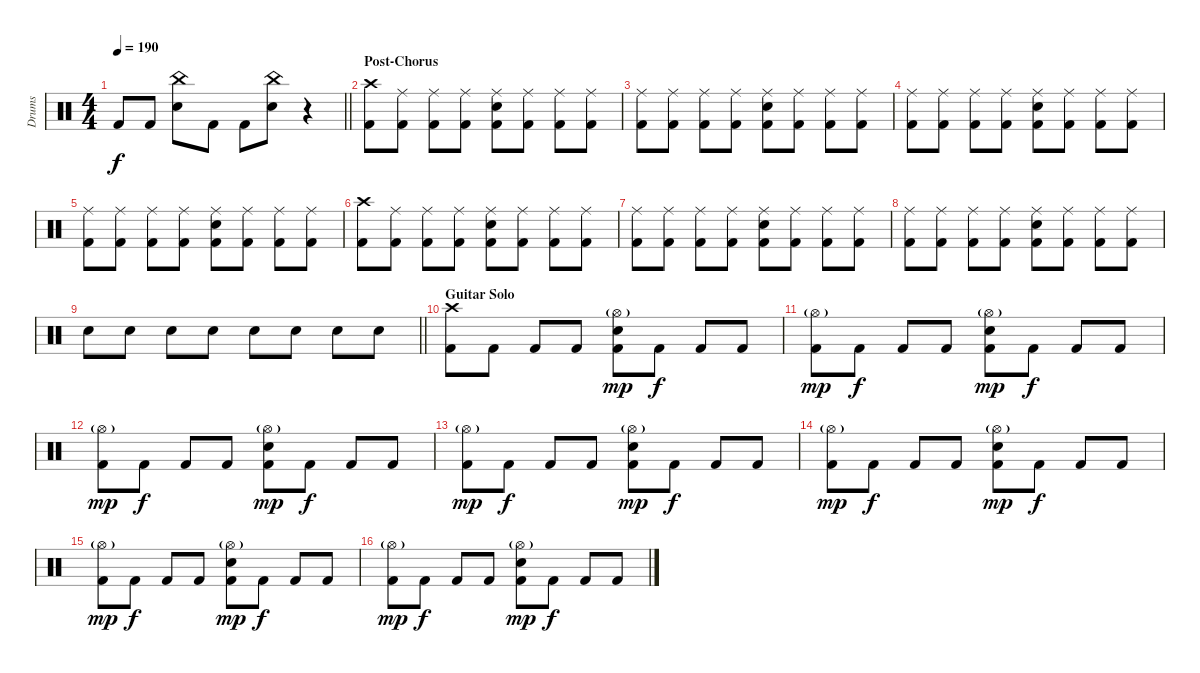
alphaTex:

\track ("Drums" "Drums") {instrument percussion}
\staff {score}
\articulation defaults
\ts (4 4)
\tempo 190
\clef neutral
\barLineRight lightlight
\ks c "Kick (hit) 2".8{dy f} "Kick (hit) 2".8
("China (hit)" "Electric Snare (hit)").8 "Kick (hit) 2".8 "Kick (hit) 2".8 ("China (hit)" "Electric Snare (hit)").8 r.4 |
\section ("" "Post-Chorus")
("Crash high (hit)" "Kick (hit) 2").8 ("Ride (middle)" "Kick (hit) 2").8 ("Ride (middle)" "Kick (hit) 2").8 ("Ride (middle)" "Kick (hit) 2").8 ("Ride (middle)" "Electric Snare (hit)" "Kick (hit) 2").8 ("Ride (middle)" "Kick (hit) 2").8 ("Ride (middle)" "Kick (hit) 2").8 ("Ride (middle)" "Kick (hit) 2").8 |
("Ride (middle)" "Kick (hit) 2").8 ("Ride (middle)" "Kick (hit) 2").8 ("Ride (middle)" "Kick (hit) 2").8 ("Ride (middle)" "Kick (hit) 2").8 ("Ride (middle)" "Electric Snare (hit)" "Kick (hit) 2").8 ("Ride (middle)" "Kick (hit) 2").8 ("Ride (middle)" "Kick (hit) 2").8 ("Ride (middle)" "Kick (hit) 2").8 |
("Ride (middle)" "Kick (hit) 2").8 ("Ride (middle)" "Kick (hit) 2").8 ("Ride (middle)" "Kick (hit) 2").8 ("Ride (middle)" "Kick (hit) 2").8 ("Ride (middle)" "Electric Snare (hit)" "Kick (hit) 2").8 ("Ride (middle)" "Kick (hit) 2").8 ("Ride (middle)" "Kick (hit) 2").8 ("Ride (middle)" "Kick (hit) 2").8 |
("Ride (middle)" "Kick (hit) 2").8 ("Ride (middle)" "Kick (hit) 2").8 ("Ride (middle)" "Kick (hit) 2").8 ("Ride (middle)" "Kick (hit) 2").8 ("Ride (middle)" "Electric Snare (hit)" "Kick (hit) 2").8 ("Ride (middle)" "Kick (hit) 2").8 ("Ride (middle)" "Kick (hit) 2").8 ("Ride (middle)" "Kick (hit) 2").8 |
("Crash high (hit)" "Kick (hit) 2").8 ("Ride (middle)" "Kick (hit) 2").8 ("Ride (middle)" "Kick (hit) 2").8 ("Ride (middle)" "Kick (hit) 2").8 ("Ride (middle)" "Electric Snare (hit)" "Kick (hit) 2").8 ("Ride (middle)" "Kick (hit) 2").8 ("Ride (middle)" "Kick (hit) 2").8 ("Ride (middle)" "Kick (hit) 2").8 |
("Ride (middle)" "Kick (hit) 2").8 ("Ride (middle)" "Kick (hit) 2").8 ("Ride (middle)" "Kick (hit) 2").8 ("Ride (middle)" "Kick (hit) 2").8 ("Ride (middle)" "Electric Snare (hit)" "Kick (hit) 2").8 ("Ride (middle)" "Kick (hit) 2").8 ("Ride (middle)" "Kick (hit) 2").8 ("Ride (middle)" "Kick (hit) 2").8 |
("Ride (middle)" "Kick (hit) 2").8 ("Ride (middle)" "Kick (hit) 2").8 ("Ride (middle)" "Kick (hit) 2").8 ("Ride (middle)" "Kick (hit) 2").8 ("Ride (middle)" "Electric Snare (hit)" "Kick (hit) 2").8 ("Ride (middle)" "Kick (hit) 2").8 ("Ride (middle)" "Kick (hit) 2").8 ("Ride (middle)" "Kick (hit) 2").8 |
\barLineRight lightlight "Electric Snare (hit)".8 "Electric Snare (hit)".8 "Electric Snare (hit)".8 "Electric Snare (hit)".8 "Electric Snare (hit)".8 "Electric Snare (hit)".8 "Electric Snare (hit)".8 "Electric Snare (hit)".8
|
\section ("" "Guitar Solo")
("Crash high (hit)" "Kick (hit) 2").8 "Kick (hit) 2".8 "Kick (hit) 2".8 "Kick (hit) 2".8 ("Hi-Hat (open)"{g} "Electric Snare (hit)" "Kick (hit) 2").8{dy mp} "Kick (hit) 2".8{dy f} "Kick (hit) 2".8 "Kick (hit) 2".8 |
("Hi-Hat (open)"{g} "Kick (hit) 2").8{dy mp} "Kick (hit) 2".8{dy f} "Kick (hit) 2".8 "Kick (hit) 2".8 ("Hi-Hat (open)"{g} "Electric Snare (hit)" "Kick (hit) 2").8{dy mp} "Kick (hit) 2".8{dy f} "Kick (hit) 2".8 "Kick (hit) 2".8 |
("Hi-Hat (open)"{g} "Kick (hit) 2").8{dy mp} "Kick (hit) 2".8{dy f} "Kick (hit) 2".8 "Kick (hit) 2".8 ("Hi-Hat (open)"{g} "Electric Snare (hit)" "Kick (hit) 2").8{dy mp} "Kick (hit) 2".8{dy f} "Kick (hit) 2".8 "Kick (hit) 2".8 |
("Hi-Hat (open)"{g} "Kick (hit) 2").8{dy mp} "Kick (hit) 2".8{dy f} "Kick (hit) 2".8 "Kick (hit) 2".8 ("Hi-Hat (open)"{g} "Electric Snare (hit)" "Kick (hit) 2").8{dy mp} "Kick (hit) 2".8{dy f} "Kick (hit) 2".8 "Kick (hit) 2".8 |
("Hi-Hat (open)"{g} "Kick (hit) 2").8{dy mp} "Kick (hit) 2".8{dy f} "Kick (hit) 2".8 "Kick (hit) 2".8 ("Hi-Hat (open)"{g} "Electric Snare (hit)" "Kick (hit) 2").8{dy mp} "Kick (hit) 2".8{dy f} "Kick (hit) 2".8 "Kick (hit) 2".8 |
("Hi-Hat (open)"{g} "Kick (hit) 2").8{dy mp} "Kick (hit) 2".8{dy f} "Kick (hit) 2".8 "Kick (hit) 2".8 ("Hi-Hat (open)"{g} "Electric Snare (hit)" "Kick (hit) 2").8{dy mp} "Kick (hit) 2".8{dy f} "Kick (hit) 2".8 "Kick (hit) 2".8 |
("Hi-Hat (open)"{g} "Kick (hit) 2").8{dy mp} "Kick (hit) 2".8{dy f} "Kick (hit) 2".8 "Kick (hit) 2".8 ("Hi-Hat (open)"{g} "Electric Snare (hit)" "Kick (hit) 2").8{dy mp} "Kick (hit) 2".8{dy f} "Kick (hit) 2".8 "Kick (hit) 2".8
